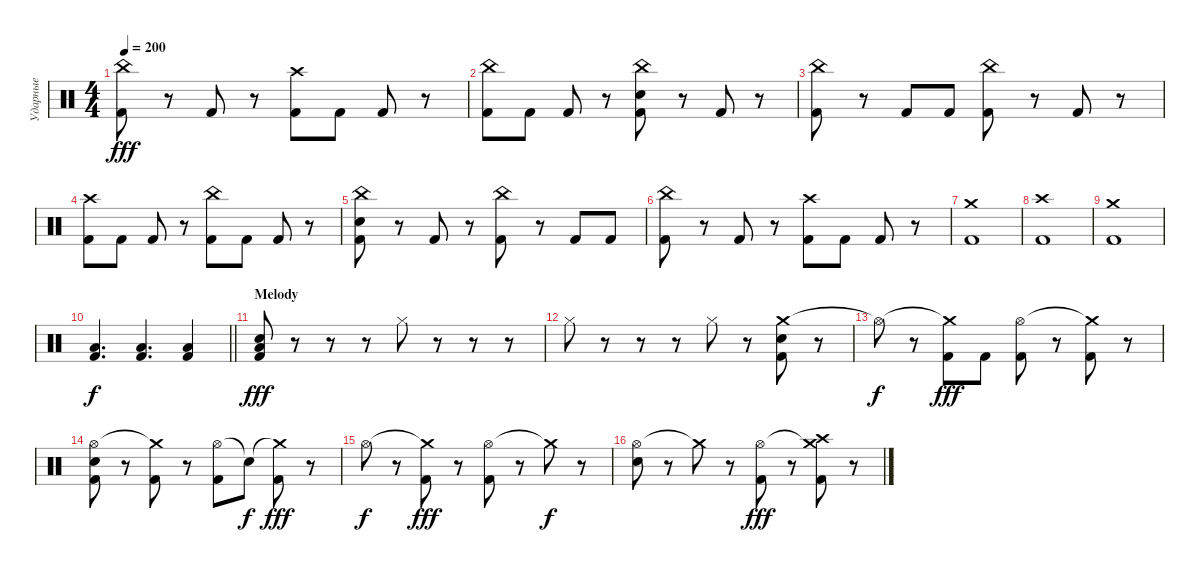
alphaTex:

\track ("Ударные" "Ударные") {instrument percussion}
\staff {score}
\articulation defaults
\ts (4 4)
\tempo 200
\clef neutral
\ks c
("China (hit)" "Kick (hit) 2").8{dy fff} r.8 "Kick (hit) 2".8 r.8 ("Crash high (hit)" "Kick (hit) 2").8 "Kick (hit) 2".8 "Kick (hit) 2".8 r.8 |
("China (hit)" "Kick (hit) 2").8 "Kick (hit) 2".8 "Kick (hit) 2".8 r.8 ("China (hit)" "Electric Snare (hit)" "Kick (hit) 2").8 r.8 "Kick (hit) 2".8 r.8 |
("China (hit)" "Kick (hit) 2").8 r.8 "Kick (hit) 2".8 "Kick (hit) 2".8 ("China (hit)" "Kick (hit) 2").8 r.8 "Kick (hit) 2".8 r.8 |
("Crash high (hit)" "Kick (hit) 2").8 "Kick (hit) 2".8 "Kick (hit) 2".8 r.8 ("China (hit)" "Kick (hit) 2").8 "Kick (hit) 2".8 "Kick (hit) 2".8 r.8 |
("China (hit)" "Electric Snare (hit)" "Kick (hit) 2").8 r.8 "Kick (hit) 2".8 r.8 ("China (hit)" "Kick (hit) 2").8 r.8 "Kick (hit) 2".8 "Kick (hit) 2".8 |
("China (hit)" "Kick (hit) 2").8 r.8 "Kick (hit) 2".8 r.8 ("Crash high (hit)" "Kick (hit) 2").8 "Kick (hit) 2".8 "Kick (hit) 2".8 r.8 |
("Crash medium (hit)" "Kick (hit) 2").1 |
("Crash high (hit)" "Kick (hit) 2").1 |
("Crash medium (hit)" "Kick (hit) 2").1 |
\barLineRight lightlight
("Low Tom (hit)" "Kick (hit) 2").4{d dy f} ("Low Tom (hit)" "Kick (hit) 2").4{d} ("Low Tom (hit)" "Kick (hit) 2").4 |
\section ("" "Melody")
("Electric Snare (hit)" "Low Floor Tom (hit)" "Kick (hit) 2").8{dy fff} r.8 r.8 r.8 "Hi-Hat (closed)".8 r.8 r.8 r.8 |
"Hi-Hat (closed)".8 r.8 r.8 r.8 "Hi-Hat (closed)".8 r.8 ("Crash medium (hit)" "Electric Snare (hit)" "Kick (hit) 2").8 r.8 |
"Hi-Hat (open)"{t}.8{dy f} r.8 ("Crash medium (hit)"{t} "Kick (hit) 2").8{dy fff} "Kick (hit) 2".8 ("Hi-Hat (open)" "Kick (hit) 2").8 r.8 ("Crash medium (hit)"{t} "Kick (hit) 2").8 r.8 |
("Hi-Hat (open)" "Electric Snare (hit)" "Kick (hit) 2").8 r.8 ("Crash medium (hit)"{t} "Kick (hit) 2").8 r.8 ("Hi-Hat (open)" "Kick (hit) 2").8 "Snare (hit)"{t}.8{dy f} ("Crash medium (hit)"{t} "Kick (hit) 2").8{dy fff} r.8 |
"Hi-Hat (open)".8{dy f} r.8 ("Crash medium (hit)"{t} "Kick (hit) 2").8{dy fff} r.8 ("Hi-Hat (open)" "Kick (hit) 2").8 r.8 "Crash medium (hit)"{t}.8{dy f} r.8 |
("Hi-Hat (open)" "Electric Snare (hit)").8 r.8 "Crash medium (hit)"{t}.8 r.8 ("Hi-Hat (open)" "Kick (hit) 2").8{dy fff} r.8 ("Crash medium (hit)"{t} "Crash high (hit)" "Kick (hit) 2").8 r.8
